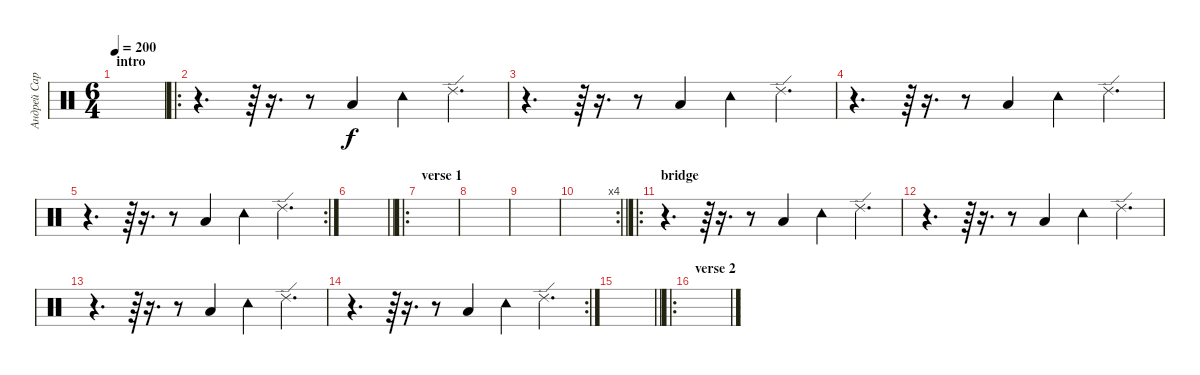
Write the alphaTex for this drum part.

\track ("Андрей Сараев" "Андрей Сар") {instrument percussion}
\staff {score}
\articulation defaults
\ts (6 4)
\section ("" "intro")
\tempo 200
\clef neutral
\ks c
|
\ro
r.4{d} r.64 r.16{d} r.8 "Low Floor Tom (hit)".4 "Tambourine (hit)".4 "Ride (edge) 2".4{d} |
r.4{d} r.64 r.16{d} r.8 "Low Floor Tom (hit)".4 "Tambourine (hit)".4 "Ride (edge) 2".4{d} |
r.4{d} r.64 r.16{d} r.8 "Low Floor Tom (hit)".4 "Tambourine (hit)".4 "Ride (edge) 2".4{d} |
\rc 2
r.4{d} r.64 r.16{d} r.8 "Low Floor Tom (hit)".4 "Tambourine (hit)".4 "Ride (edge) 2".4{d} |
\barLineRight lightlight
|
\ro
\section ("" "verse 1")
|
|
|
\rc 4
\barLineRight lightlight
|
\ro
\section ("" "bridge")
r.4{d} r.64 r.16{d} r.8 "Low Floor Tom (hit)".4 "Tambourine (hit)".4 "Ride (edge) 2".4{d} |
r.4{d} r.64 r.16{d} r.8 "Low Floor Tom (hit)".4 "Tambourine (hit)".4 "Ride (edge) 2".4{d} |
r.4{d} r.64 r.16{d} r.8 "Low Floor Tom (hit)".4 "Tambourine (hit)".4 "Ride (edge) 2".4{d} |
\rc 2
r.4{d} r.64 r.16{d} r.8 "Low Floor Tom (hit)".4 "Tambourine (hit)".4 "Ride (edge) 2".4{d} |
\barLineRight lightlight
|
\ro
\section ("" "verse 2")
